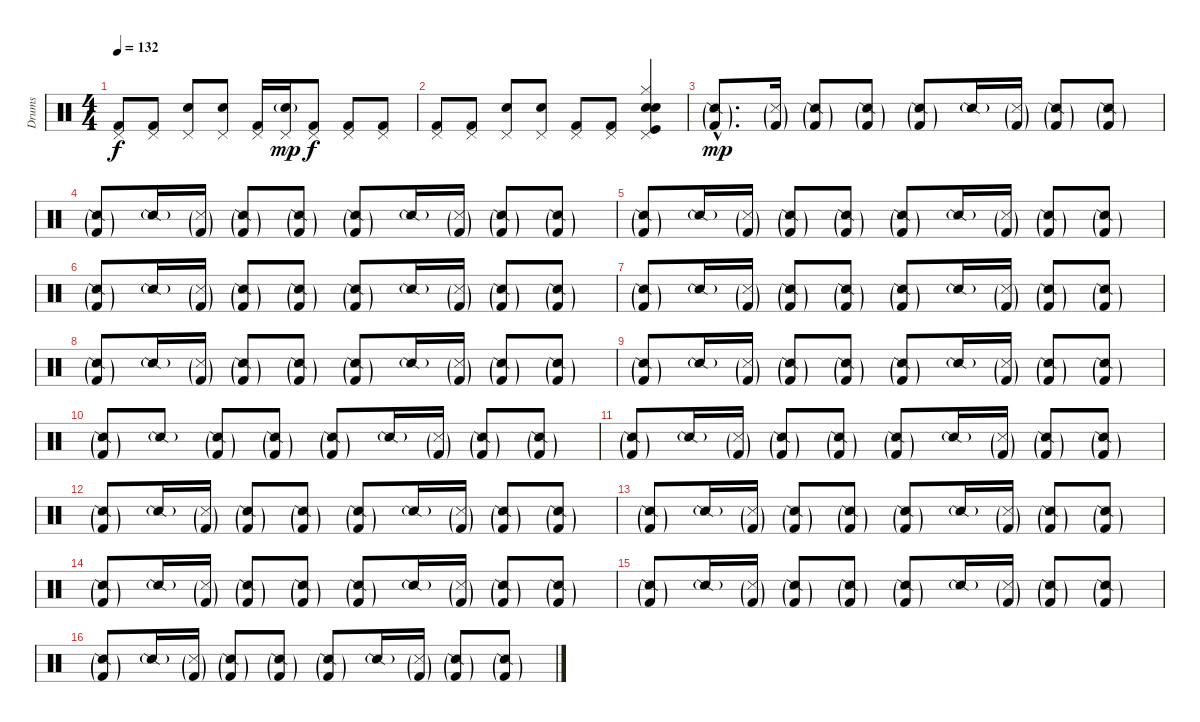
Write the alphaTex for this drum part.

\track ("Drums" "Drums") {instrument percussion}
\staff {score}
\articulation defaults
\ts (4 4)
\tempo 132
\clef neutral
\ks c
("Pedal Hi-Hat (hit)" "Kick (hit) 2").8{dy f} ("Pedal Hi-Hat (hit)" "Kick (hit) 2").8 ("Pedal Hi-Hat (hit)" "Electric Snare (hit)").8 ("Pedal Hi-Hat (hit)" "Electric Snare (hit)").8 ("Pedal Hi-Hat (hit)" "Kick (hit) 2").16 ("Pedal Hi-Hat (hit)" "Electric Snare (hit)"{g}).16{dy mp} ("Pedal Hi-Hat (hit)" "Kick (hit) 2").8{dy f} ("Pedal Hi-Hat (hit)" "Kick (hit) 2").8 ("Pedal Hi-Hat (hit)" "Kick (hit) 2").8 |
("Pedal Hi-Hat (hit)" "Kick (hit) 2").8 ("Pedal Hi-Hat (hit)" "Kick (hit) 2").8 ("Pedal Hi-Hat (hit)" "Electric Snare (hit)").8 ("Pedal Hi-Hat (hit)" "Electric Snare (hit)").8 ("Pedal Hi-Hat (hit)" "Kick (hit) 2").8 ("Pedal Hi-Hat (hit)" "Kick (hit) 2").8 ("Pedal Hi-Hat (hit)" "Hi-Hat (closed)" "Electric Snare (hit)" "Electric Snare (hit)" "Kick (hit)").4 |
("Kick (hit) 2"{g hac} "Snare (side stick) 2"{g hac}).8{d dy mp} ("Kick (hit) 2"{g} "Snare (side stick) 3"{g}).16 ("Kick (hit) 2"{g} "Snare (side stick) 2"{g}).8 ("Kick (hit) 2"{g} "Snare (side stick) 2"{g}).8 ("Kick (hit) 2"{g} "Snare (side stick) 2"{g}).8 "Snare (side stick) 2"{g}.16 ("Kick (hit) 2"{g} "Snare (side stick) 3"{g}).16 ("Kick (hit) 2"{g} "Snare (side stick) 2"{g}).8 ("Kick (hit) 2"{g} "Snare (side stick) 2"{g}).8 |
("Kick (hit) 2"{g} "Snare (side stick) 2"{g}).8 "Snare (side stick) 2"{g}.16 ("Kick (hit) 2"{g} "Snare (side stick) 3"{g}).16 ("Kick (hit) 2"{g} "Snare (side stick) 2"{g}).8 ("Kick (hit) 2"{g} "Snare (side stick) 2"{g}).8 ("Kick (hit) 2"{g} "Snare (side stick) 2"{g}).8 "Snare (side stick) 2"{g}.16 ("Kick (hit) 2"{g} "Snare (side stick) 3"{g}).16 ("Kick (hit) 2"{g} "Snare (side stick) 2"{g}).8 ("Kick (hit) 2"{g} "Snare (side stick) 2"{g}).8 |
("Kick (hit) 2"{g} "Snare (side stick) 2"{g}).8 "Snare (side stick) 2"{g}.16 ("Kick (hit) 2"{g} "Snare (side stick) 3"{g}).16 ("Kick (hit) 2"{g} "Snare (side stick) 2"{g}).8 ("Kick (hit) 2"{g} "Snare (side stick) 2"{g}).8 ("Kick (hit) 2"{g} "Snare (side stick) 2"{g}).8 "Snare (side stick) 2"{g}.16 ("Kick (hit) 2"{g} "Snare (side stick) 3"{g}).16 ("Kick (hit) 2"{g} "Snare (side stick) 2"{g}).8 ("Kick (hit) 2"{g} "Snare (side stick) 2"{g}).8 |
("Kick (hit) 2"{g} "Snare (side stick) 2"{g}).8 "Snare (side stick) 2"{g}.16 ("Kick (hit) 2"{g} "Snare (side stick) 3"{g}).16 ("Kick (hit) 2"{g} "Snare (side stick) 2"{g}).8 ("Kick (hit) 2"{g} "Snare (side stick) 2"{g}).8 ("Kick (hit) 2"{g} "Snare (side stick) 2"{g}).8 "Snare (side stick) 2"{g}.16 ("Kick (hit) 2"{g} "Snare (side stick) 3"{g}).16 ("Kick (hit) 2"{g} "Snare (side stick) 2"{g}).8 ("Kick (hit) 2"{g} "Snare (side stick) 2"{g}).8 |
("Kick (hit) 2"{g} "Snare (side stick) 2"{g}).8 "Snare (side stick) 2"{g}.16 ("Kick (hit) 2"{g} "Snare (side stick) 3"{g}).16 ("Kick (hit) 2"{g} "Snare (side stick) 2"{g}).8 ("Kick (hit) 2"{g} "Snare (side stick) 2"{g}).8 ("Kick (hit) 2"{g} "Snare (side stick) 2"{g}).8 "Snare (side stick) 2"{g}.16 ("Kick (hit) 2"{g} "Snare (side stick) 3"{g}).16 ("Kick (hit) 2"{g} "Snare (side stick) 2"{g}).8 ("Kick (hit) 2"{g} "Snare (side stick) 2"{g}).8 |
("Kick (hit) 2"{g} "Snare (side stick) 2"{g}).8 "Snare (side stick) 2"{g}.16 ("Kick (hit) 2"{g} "Snare (side stick) 3"{g}).16 ("Kick (hit) 2"{g} "Snare (side stick) 2"{g}).8 ("Kick (hit) 2"{g} "Snare (side stick) 2"{g}).8 ("Kick (hit) 2"{g} "Snare (side stick) 2"{g}).8 "Snare (side stick) 2"{g}.16 ("Kick (hit) 2"{g} "Snare (side stick) 3"{g}).16 ("Kick (hit) 2"{g} "Snare (side stick) 2"{g}).8 ("Kick (hit) 2"{g} "Snare (side stick) 2"{g}).8 |
("Kick (hit) 2"{g} "Snare (side stick) 2"{g}).8 "Snare (side stick) 2"{g}.16 ("Kick (hit) 2"{g} "Snare (side stick) 3"{g}).16 ("Kick (hit) 2"{g} "Snare (side stick) 2"{g}).8 ("Kick (hit) 2"{g} "Snare (side stick) 2"{g}).8 ("Kick (hit) 2"{g} "Snare (side stick) 2"{g}).8 "Snare (side stick) 2"{g}.16 ("Kick (hit) 2"{g} "Snare (side stick) 3"{g}).16 ("Kick (hit) 2"{g} "Snare (side stick) 2"{g}).8 ("Kick (hit) 2"{g} "Snare (side stick) 2"{g}).8 |
("Kick (hit) 2"{g} "Snare (side stick) 2"{g}).8 "Snare (side stick) 2"{g}.8 ("Kick (hit) 2"{g} "Snare (side stick) 2"{g}).8 ("Kick (hit) 2"{g} "Snare (side stick) 2"{g}).8 ("Kick (hit) 2"{g} "Snare (side stick) 2"{g}).8 "Snare (side stick) 2"{g}.16 ("Kick (hit) 2"{g} "Snare (side stick) 3"{g}).16 ("Kick (hit) 2"{g} "Snare (side stick) 2"{g}).8 ("Kick (hit) 2"{g} "Snare (side stick) 2"{g}).8 |
("Kick (hit) 2"{g} "Snare (side stick) 2"{g}).8 "Snare (side stick) 2"{g}.16 ("Kick (hit) 2"{g} "Snare (side stick) 3"{g}).16 ("Kick (hit) 2"{g} "Snare (side stick) 2"{g}).8 ("Kick (hit) 2"{g} "Snare (side stick) 2"{g}).8 ("Kick (hit) 2"{g} "Snare (side stick) 2"{g}).8 "Snare (side stick) 2"{g}.16 ("Kick (hit) 2"{g} "Snare (side stick) 3"{g}).16 ("Kick (hit) 2"{g} "Snare (side stick) 2"{g}).8 ("Kick (hit) 2"{g} "Snare (side stick) 2"{g}).8 |
("Kick (hit) 2"{g} "Snare (side stick) 2"{g}).8 "Snare (side stick) 2"{g}.16 ("Kick (hit) 2"{g} "Snare (side stick) 3"{g}).16 ("Kick (hit) 2"{g} "Snare (side stick) 2"{g}).8 ("Kick (hit) 2"{g} "Snare (side stick) 2"{g}).8 ("Kick (hit) 2"{g} "Snare (side stick) 2"{g}).8 "Snare (side stick) 2"{g}.16 ("Kick (hit) 2"{g} "Snare (side stick) 3"{g}).16 ("Kick (hit) 2"{g} "Snare (side stick) 2"{g}).8 ("Kick (hit) 2"{g} "Snare (side stick) 2"{g}).8 |
("Kick (hit) 2"{g} "Snare (side stick) 2"{g}).8 "Snare (side stick) 2"{g}.16 ("Kick (hit) 2"{g} "Snare (side stick) 3"{g}).16 ("Kick (hit) 2"{g} "Snare (side stick) 2"{g}).8 ("Kick (hit) 2"{g} "Snare (side stick) 2"{g}).8 ("Kick (hit) 2"{g} "Snare (side stick) 2"{g}).8 "Snare (side stick) 2"{g}.16 ("Kick (hit) 2"{g} "Snare (side stick) 3"{g}).16 ("Kick (hit) 2"{g} "Snare (side stick) 2"{g}).8 ("Kick (hit) 2"{g} "Snare (side stick) 2"{g}).8 |
("Kick (hit) 2"{g} "Snare (side stick) 2"{g}).8 "Snare (side stick) 2"{g}.16 ("Kick (hit) 2"{g} "Snare (side stick) 3"{g}).16 ("Kick (hit) 2"{g} "Snare (side stick) 2"{g}).8 ("Kick (hit) 2"{g} "Snare (side stick) 2"{g}).8 ("Kick (hit) 2"{g} "Snare (side stick) 2"{g}).8 "Snare (side stick) 2"{g}.16 ("Kick (hit) 2"{g} "Snare (side stick) 3"{g}).16 ("Kick (hit) 2"{g} "Snare (side stick) 2"{g}).8 ("Kick (hit) 2"{g} "Snare (side stick) 2"{g}).8 |
("Kick (hit) 2"{g} "Snare (side stick) 2"{g}).8 "Snare (side stick) 2"{g}.16 ("Kick (hit) 2"{g} "Snare (side stick) 3"{g}).16 ("Kick (hit) 2"{g} "Snare (side stick) 2"{g}).8 ("Kick (hit) 2"{g} "Snare (side stick) 2"{g}).8 ("Kick (hit) 2"{g} "Snare (side stick) 2"{g}).8 "Snare (side stick) 2"{g}.16 ("Kick (hit) 2"{g} "Snare (side stick) 3"{g}).16 ("Kick (hit) 2"{g} "Snare (side stick) 2"{g}).8 ("Kick (hit) 2"{g} "Snare (side stick) 2"{g}).8 |
("Kick (hit) 2"{g} "Snare (side stick) 2"{g}).8 "Snare (side stick) 2"{g}.16 ("Kick (hit) 2"{g} "Snare (side stick) 3"{g}).16 ("Kick (hit) 2"{g} "Snare (side stick) 2"{g}).8 ("Kick (hit) 2"{g} "Snare (side stick) 2"{g}).8 ("Kick (hit) 2"{g} "Snare (side stick) 2"{g}).8 "Snare (side stick) 2"{g}.16 ("Kick (hit) 2"{g} "Snare (side stick) 3"{g}).16 ("Kick (hit) 2"{g} "Snare (side stick) 2"{g}).8 ("Kick (hit) 2"{g} "Snare (side stick) 2"{g}).8
